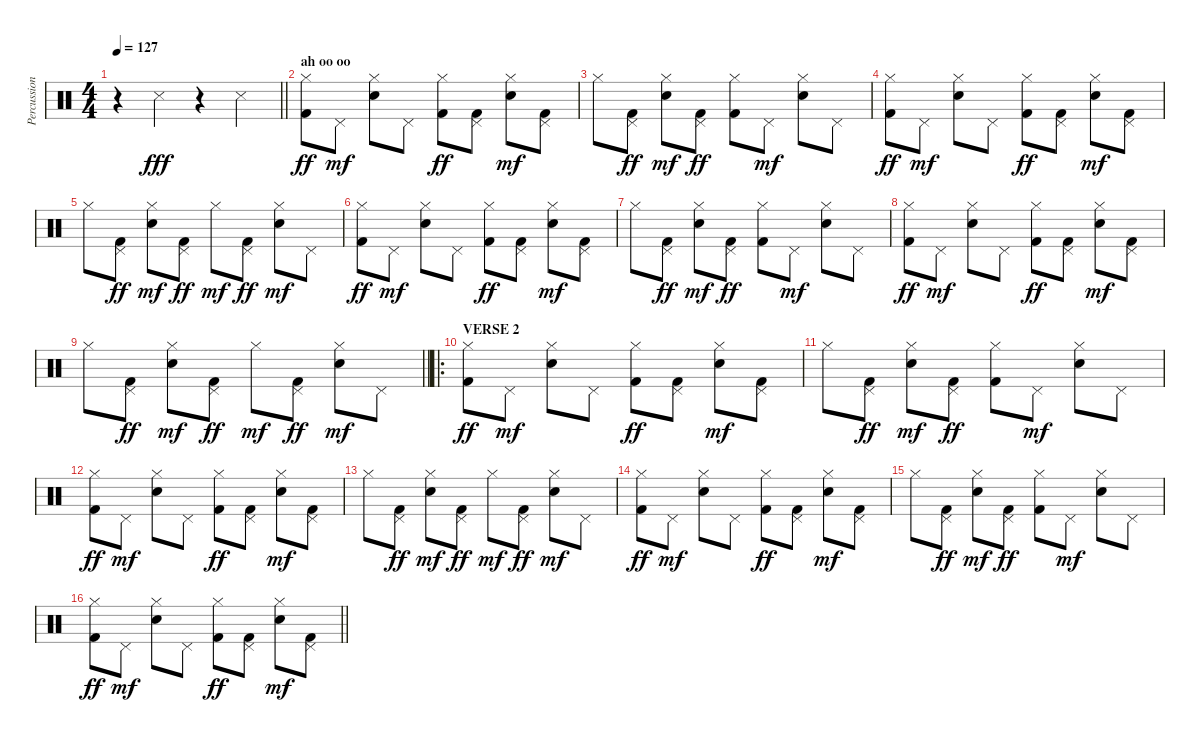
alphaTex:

\track ("Percussion" "Percussion") {instrument percussion}
\staff {score}
\articulation defaults
\ts (4 4)
\tempo 127
\clef neutral
\barLineRight lightlight
\ks c
r.4{dy fff} "Snare (side stick) 3".4 r.4 "Snare (side stick) 3".4 |
\section ("" "ah oo oo")
("Hi-Hat (closed)" "Kick (hit) 2").8{dy ff} "Pedal Hi-Hat (hit)".8{dy mf} ("Hi-Hat (closed)" "Snare (hit) 2").8 "Pedal Hi-Hat (hit)".8 ("Hi-Hat (closed)" "Kick (hit) 2").8{dy ff} ("Pedal Hi-Hat (hit)" "Kick (hit) 2").8 ("Hi-Hat (closed)" "Snare (hit) 2").8{dy mf} ("Pedal Hi-Hat (hit)" "Kick (hit) 2").8 |
"Hi-Hat (closed)".8 ("Pedal Hi-Hat (hit)" "Kick (hit) 2").8{dy ff} ("Hi-Hat (closed)" "Snare (hit) 2").8{dy mf} ("Pedal Hi-Hat (hit)" "Kick (hit) 2").8{dy ff} ("Hi-Hat (closed)" "Kick (hit) 2").8 "Pedal Hi-Hat (hit)".8{dy mf} ("Hi-Hat (closed)" "Snare (hit) 2").8 "Pedal Hi-Hat (hit)".8 |
("Hi-Hat (closed)" "Kick (hit) 2").8{dy ff} "Pedal Hi-Hat (hit)".8{dy mf} ("Hi-Hat (closed)" "Snare (hit) 2").8 "Pedal Hi-Hat (hit)".8 ("Hi-Hat (closed)" "Kick (hit) 2").8{dy ff} ("Pedal Hi-Hat (hit)" "Kick (hit) 2").8 ("Hi-Hat (closed)" "Snare (hit) 2").8{dy mf} ("Pedal Hi-Hat (hit)" "Kick (hit) 2").8 |
"Hi-Hat (closed)".8 ("Pedal Hi-Hat (hit)" "Kick (hit) 2").8{dy ff} ("Hi-Hat (closed)" "Snare (hit) 2").8{dy mf} ("Pedal Hi-Hat (hit)" "Kick (hit) 2").8{dy ff} "Hi-Hat (closed)".8{dy mf} ("Pedal Hi-Hat (hit)" "Kick (hit) 2").8{dy ff} ("Hi-Hat (closed)" "Snare (hit) 2").8{dy mf} "Pedal Hi-Hat (hit)".8 |
("Hi-Hat (closed)" "Kick (hit) 2").8{dy ff} "Pedal Hi-Hat (hit)".8{dy mf} ("Hi-Hat (closed)" "Snare (hit) 2").8 "Pedal Hi-Hat (hit)".8 ("Hi-Hat (closed)" "Kick (hit) 2").8{dy ff} ("Pedal Hi-Hat (hit)" "Kick (hit) 2").8 ("Hi-Hat (closed)" "Snare (hit) 2").8{dy mf} ("Pedal Hi-Hat (hit)" "Kick (hit) 2").8 |
"Hi-Hat (closed)".8 ("Pedal Hi-Hat (hit)" "Kick (hit) 2").8{dy ff} ("Hi-Hat (closed)" "Snare (hit) 2").8{dy mf} ("Pedal Hi-Hat (hit)" "Kick (hit) 2").8{dy ff} ("Hi-Hat (closed)" "Kick (hit) 2").8 "Pedal Hi-Hat (hit)".8{dy mf} ("Hi-Hat (closed)" "Snare (hit) 2").8 "Pedal Hi-Hat (hit)".8 |
("Hi-Hat (closed)" "Kick (hit) 2").8{dy ff} "Pedal Hi-Hat (hit)".8{dy mf} ("Hi-Hat (closed)" "Snare (hit) 2").8 "Pedal Hi-Hat (hit)".8 ("Hi-Hat (closed)" "Kick (hit) 2").8{dy ff} ("Pedal Hi-Hat (hit)" "Kick (hit) 2").8 ("Hi-Hat (closed)" "Snare (hit) 2").8{dy mf} ("Pedal Hi-Hat (hit)" "Kick (hit) 2").8 |
\barLineRight lightlight "Hi-Hat (closed)".8
("Pedal Hi-Hat (hit)" "Kick (hit) 2").8{dy ff} ("Hi-Hat (closed)" "Snare (hit) 2").8{dy mf} ("Pedal Hi-Hat (hit)" "Kick (hit) 2").8{dy ff} "Hi-Hat (closed)".8{dy mf} ("Pedal Hi-Hat (hit)" "Kick (hit) 2").8{dy ff} ("Hi-Hat (closed)" "Snare (hit) 2").8{dy mf} "Pedal Hi-Hat (hit)".8 |
\ro
\section ("" "VERSE 2")
("Hi-Hat (closed)" "Kick (hit) 2").8{dy ff} "Pedal Hi-Hat (hit)".8{dy mf} ("Hi-Hat (closed)" "Snare (hit) 2").8 "Pedal Hi-Hat (hit)".8 ("Hi-Hat (closed)" "Kick (hit) 2").8{dy ff} ("Pedal Hi-Hat (hit)" "Kick (hit) 2").8 ("Hi-Hat (closed)" "Snare (hit) 2").8{dy mf} ("Pedal Hi-Hat (hit)" "Kick (hit) 2").8 |
"Hi-Hat (closed)".8 ("Pedal Hi-Hat (hit)" "Kick (hit) 2").8{dy ff} ("Hi-Hat (closed)" "Snare (hit) 2").8{dy mf} ("Pedal Hi-Hat (hit)" "Kick (hit) 2").8{dy ff} ("Hi-Hat (closed)" "Kick (hit) 2").8 "Pedal Hi-Hat (hit)".8{dy mf} ("Hi-Hat (closed)" "Snare (hit) 2").8 "Pedal Hi-Hat (hit)".8 |
("Hi-Hat (closed)" "Kick (hit) 2").8{dy ff} "Pedal Hi-Hat (hit)".8{dy mf} ("Hi-Hat (closed)" "Snare (hit) 2").8 "Pedal Hi-Hat (hit)".8 ("Hi-Hat (closed)" "Kick (hit) 2").8{dy ff} ("Pedal Hi-Hat (hit)" "Kick (hit) 2").8 ("Hi-Hat (closed)" "Snare (hit) 2").8{dy mf} ("Pedal Hi-Hat (hit)" "Kick (hit) 2").8 |
"Hi-Hat (closed)".8 ("Pedal Hi-Hat (hit)" "Kick (hit) 2").8{dy ff} ("Hi-Hat (closed)" "Snare (hit) 2").8{dy mf} ("Pedal Hi-Hat (hit)" "Kick (hit) 2").8{dy ff} "Hi-Hat (closed)".8{dy mf} ("Pedal Hi-Hat (hit)" "Kick (hit) 2").8{dy ff} ("Hi-Hat (closed)" "Snare (hit) 2").8{dy mf} "Pedal Hi-Hat (hit)".8 |
("Hi-Hat (closed)" "Kick (hit) 2").8{dy ff} "Pedal Hi-Hat (hit)".8{dy mf} ("Hi-Hat (closed)" "Snare (hit) 2").8 "Pedal Hi-Hat (hit)".8 ("Hi-Hat (closed)" "Kick (hit) 2").8{dy ff} ("Pedal Hi-Hat (hit)" "Kick (hit) 2").8 ("Hi-Hat (closed)" "Snare (hit) 2").8{dy mf} ("Pedal Hi-Hat (hit)" "Kick (hit) 2").8 |
"Hi-Hat (closed)".8 ("Pedal Hi-Hat (hit)" "Kick (hit) 2").8{dy ff} ("Hi-Hat (closed)" "Snare (hit) 2").8{dy mf} ("Pedal Hi-Hat (hit)" "Kick (hit) 2").8{dy ff} ("Hi-Hat (closed)" "Kick (hit) 2").8 "Pedal Hi-Hat (hit)".8{dy mf} ("Hi-Hat (closed)" "Snare (hit) 2").8 "Pedal Hi-Hat (hit)".8 |
\barLineRight lightlight
("Hi-Hat (closed)" "Kick (hit) 2").8{dy ff} "Pedal Hi-Hat (hit)".8{dy mf} ("Hi-Hat (closed)" "Snare (hit) 2").8 "Pedal Hi-Hat (hit)".8 ("Hi-Hat (closed)" "Kick (hit) 2").8{dy ff} ("Pedal Hi-Hat (hit)" "Kick (hit) 2").8 ("Hi-Hat (closed)" "Snare (hit) 2").8{dy mf} ("Pedal Hi-Hat (hit)" "Kick (hit) 2").8
